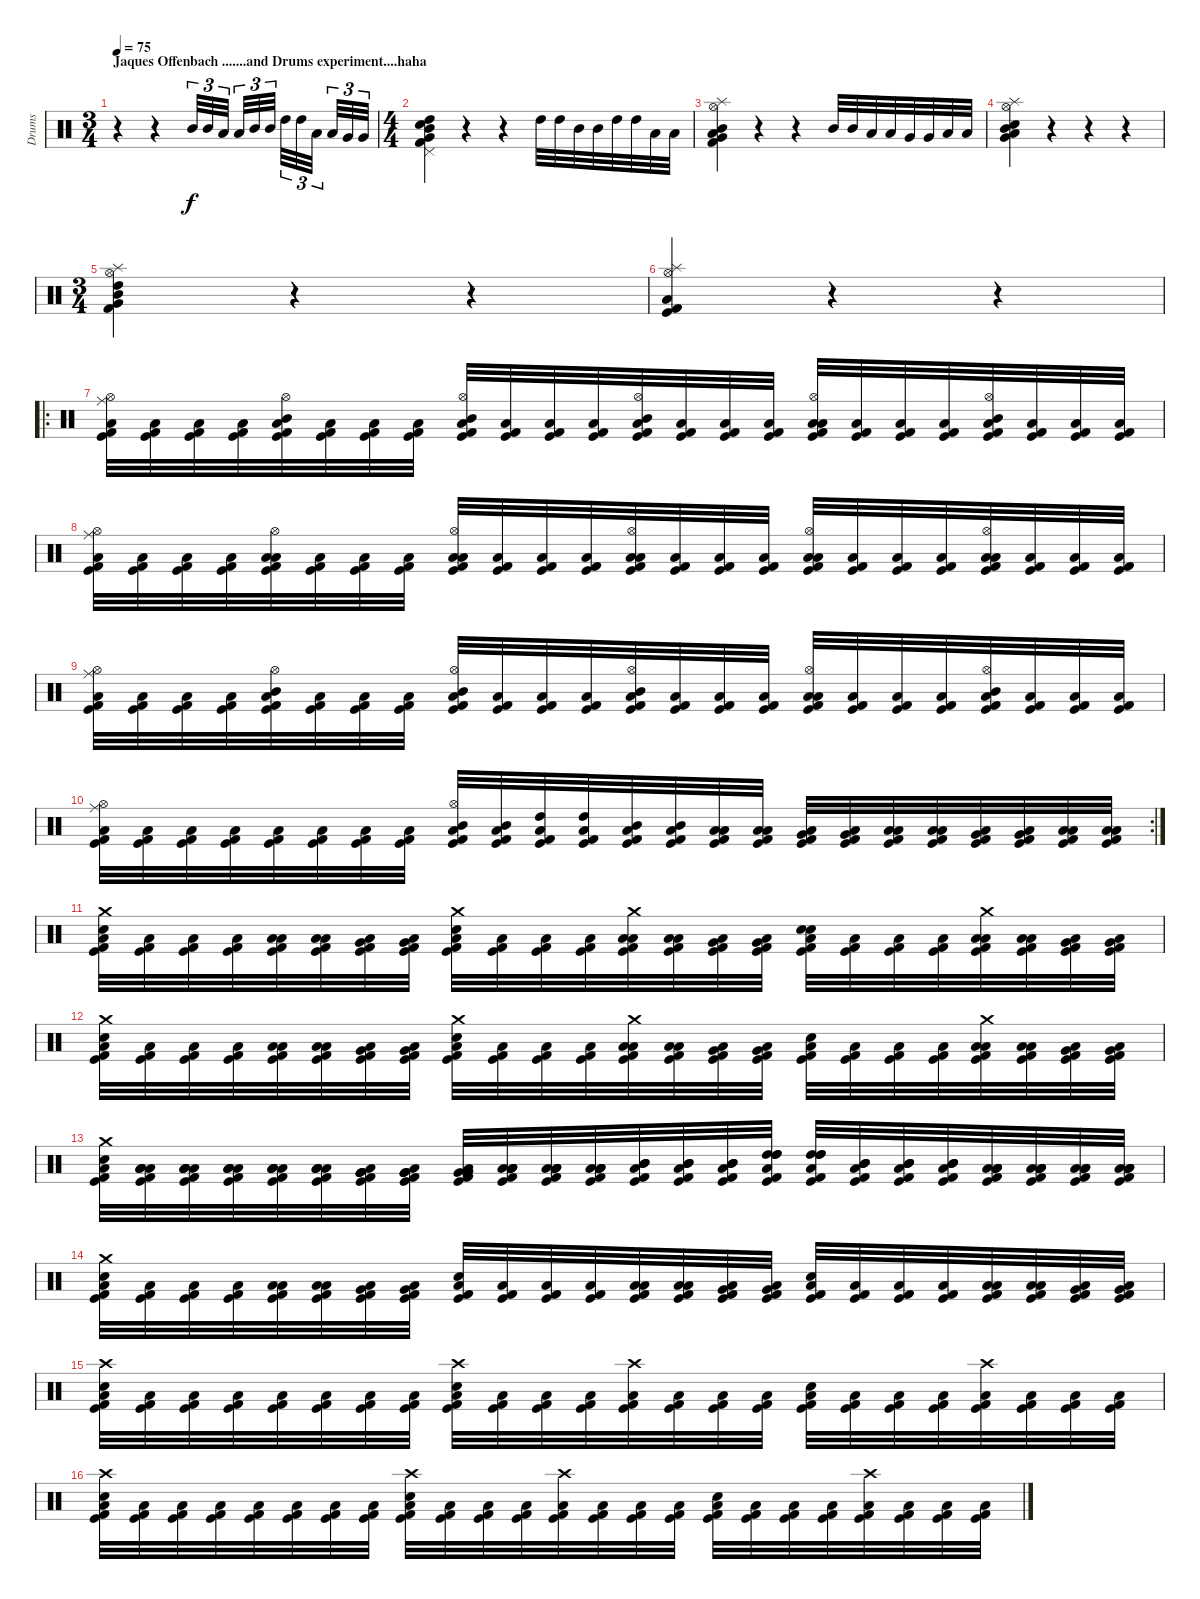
\track ("Drums" "Drums") {instrument percussion}
\staff {score}
\articulation defaults
\ts (3 4)
\section ("" "Jaques Offenbach .......and Drums experiment....haha")
\tempo 75
\clef neutral
\ks c
r.4{dy f} r.4 "Mid Tom (hit)".32{tu (3 2)} "Mid Tom (hit)".32{tu (3 2)} "Low Tom (hit)".32{tu (3 2)} "Low Tom (hit)".32{tu (3 2)} "Mid Tom (hit)".32{tu (3 2)} "Mid Tom (hit)".32{tu (3 2)} "High Tom (hit)".32{tu (3 2)} "High Tom (hit)".32{tu (3 2)} "Low Tom (hit)".32{tu (3 2)} "Low Tom (hit)".32{tu (3 2)} "Very Low Tom (hit)".32{tu (3 2)} "Very Low Tom (hit)".32{tu (3 2)} |
\ts (4 4)
("Mid Tom (hit)" "High Tom (hit)" "Very Low Tom (hit)" "Pedal Hi-Hat (hit)" "Kick (hit) 2" "Electric Snare (hit)").4 r.4 r.4 "High Tom (hit)".32 "High Tom (hit)".32 "Mid Tom (hit)".32 "Mid Tom (hit)".32 "High Tom (hit)".32 "High Tom (hit)".32 "Low Tom (hit)".32 "Low Tom (hit)".32 |
("Mid Tom (hit)" "Low Tom (hit)" "Very Low Tom (hit)" "Hi-Hat (open)" "Splash (hit)" "Kick (hit) 2").4 r.4 r.4 "Mid Tom (hit)".32 "Mid Tom (hit)".32 "Low Tom (hit)".32 "Low Tom (hit)".32 "Very Low Tom (hit)".32 "Very Low Tom (hit)".32 "Low Floor Tom (hit)".32 "Low Floor Tom (hit)".32 |
("Mid Tom (hit)" "Low Tom (hit)" "Hi-Hat (open)" "Splash (hit)" "Snare (hit)" "Very Low Tom (hit)").4 r.4 r.4 r.4 |
\ts (3 4)
("Mid Tom (hit)" "High Tom (hit)" "Very Low Tom (hit)" "Splash (hit)" "Kick (hit) 2" "Hi-Hat (open)").4 r.4 r.4 |
("Hi-Hat (open)" "Splash (hit)" "Low Tom (hit)" "Kick (hit)" "Kick (hit) 2").4 r.4 r.4 |
\ro
("Low Tom (hit)" "Kick (hit)" "Hi-Hat (open)" "Ride (middle)" "Kick (hit) 2").32 ("Low Tom (hit)" "Kick (hit)" "Kick (hit) 2").32 ("Low Tom (hit)" "Kick (hit)" "Kick (hit) 2").32 ("Low Tom (hit)" "Kick (hit)" "Kick (hit) 2").32 ("Low Tom (hit)" "Kick (hit)" "Mid Tom (hit)" "Hi-Hat (open)" "Kick (hit) 2").32 ("Low Tom (hit)" "Kick (hit)" "Kick (hit) 2").32 ("Low Tom (hit)" "Kick (hit)" "Kick (hit) 2").32 ("Low Tom (hit)" "Kick (hit)" "Kick (hit) 2").32 ("Low Tom (hit)" "Kick (hit)" "Mid Tom (hit)" "Hi-Hat (open)" "Kick (hit) 2").32 ("Low Tom (hit)" "Kick (hit)" "Kick (hit) 2").32 ("Low Tom (hit)" "Kick (hit)" "Kick (hit) 2").32 ("Low Tom (hit)" "Kick (hit)" "Kick (hit) 2").32 ("Low Tom (hit)" "Kick (hit)" "Mid Tom (hit)" "Hi-Hat (open)" "Kick (hit) 2").32 ("Low Tom (hit)" "Kick (hit)" "Kick (hit) 2").32 ("Low Tom (hit)" "Kick (hit)" "Kick (hit) 2").32 ("Low Tom (hit)" "Kick (hit)" "Kick (hit) 2").32 ("Low Tom (hit)" "Kick (hit)" "Hi-Hat (open)" "Low Floor Tom (hit)" "Kick (hit) 2").32 ("Low Tom (hit)" "Kick (hit)" "Kick (hit) 2").32 ("Low Tom (hit)" "Kick (hit)" "Kick (hit) 2").32 ("Low Tom (hit)" "Kick (hit)" "Kick (hit) 2").32 ("Low Tom (hit)" "Kick (hit)" "Mid Tom (hit)" "Hi-Hat (open)" "Kick (hit) 2").32 ("Low Tom (hit)" "Kick (hit)" "Kick (hit) 2").32 ("Low Tom (hit)" "Kick (hit)" "Kick (hit) 2").32 ("Low Tom (hit)" "Kick (hit)" "Kick (hit) 2").32 |
("Kick (hit) 2" "Low Tom (hit)" "Hi-Hat (open)" "Ride (middle)" "Kick (hit)").32 ("Kick (hit) 2" "Low Tom (hit)" "Kick (hit)").32 ("Kick (hit) 2" "Low Tom (hit)" "Kick (hit)").32 ("Kick (hit) 2" "Low Tom (hit)" "Kick (hit)").32 ("Kick (hit) 2" "Low Tom (hit)" "Low Tom (hit)" "Hi-Hat (open)" "Kick (hit)").32 ("Kick (hit) 2" "Low Tom (hit)" "Kick (hit)").32 ("Kick (hit) 2" "Low Tom (hit)" "Kick (hit)").32 ("Kick (hit) 2" "Low Tom (hit)" "Kick (hit)").32 ("Kick (hit) 2" "Low Tom (hit)" "Hi-Hat (open)" "Low Tom (hit)" "Kick (hit)").32 ("Kick (hit) 2" "Low Tom (hit)" "Kick (hit)").32 ("Kick (hit) 2" "Low Tom (hit)" "Kick (hit)").32 ("Kick (hit) 2" "Low Tom (hit)" "Kick (hit)").32 ("Kick (hit) 2" "Low Tom (hit)" "Low Tom (hit)" "Hi-Hat (open)" "Kick (hit)").32 ("Kick (hit) 2" "Low Tom (hit)" "Kick (hit)").32 ("Kick (hit) 2" "Low Tom (hit)" "Kick (hit)").32 ("Kick (hit) 2" "Low Tom (hit)" "Kick (hit)").32 ("Kick (hit) 2" "Low Tom (hit)" "Low Floor Tom (hit)" "Hi-Hat (open)" "Kick (hit)").32 ("Kick (hit) 2" "Low Tom (hit)" "Kick (hit)").32 ("Kick (hit) 2" "Low Tom (hit)" "Kick (hit)").32 ("Kick (hit) 2" "Low Tom (hit)" "Kick (hit)").32 ("Kick (hit) 2" "Low Tom (hit)" "Low Tom (hit)" "Hi-Hat (open)" "Kick (hit)").32 ("Kick (hit) 2" "Low Tom (hit)" "Kick (hit)").32 ("Kick (hit) 2" "Low Tom (hit)" "Kick (hit)").32 ("Kick (hit) 2" "Low Tom (hit)" "Kick (hit)").32 |
("Kick (hit)" "Low Tom (hit)" "Hi-Hat (open)" "Ride (middle)" "Kick (hit) 2").32 ("Kick (hit)" "Low Tom (hit)" "Kick (hit) 2").32 ("Kick (hit)" "Low Tom (hit)" "Kick (hit) 2").32 ("Kick (hit)" "Low Tom (hit)" "Kick (hit) 2").32 ("Kick (hit)" "Low Tom (hit)" "Mid Tom (hit)" "Hi-Hat (open)" "Kick (hit) 2").32 ("Kick (hit)" "Low Tom (hit)" "Kick (hit) 2").32 ("Kick (hit)" "Low Tom (hit)" "Kick (hit) 2").32 ("Kick (hit)" "Low Tom (hit)" "Kick (hit) 2").32 ("Kick (hit)" "Low Tom (hit)" "Mid Tom (hit)" "Hi-Hat (open)" "Kick (hit) 2").32 ("Kick (hit)" "Low Tom (hit)" "Kick (hit) 2").32 ("Kick (hit)" "Low Tom (hit)" "Kick (hit) 2").32 ("Kick (hit)" "Low Tom (hit)" "Kick (hit) 2").32 ("Kick (hit)" "Low Tom (hit)" "Mid Tom (hit)" "Hi-Hat (open)" "Kick (hit) 2").32 ("Kick (hit)" "Low Tom (hit)" "Kick (hit) 2").32 ("Kick (hit)" "Low Tom (hit)" "Kick (hit) 2").32 ("Kick (hit)" "Low Tom (hit)" "Kick (hit) 2").32 ("Kick (hit)" "Low Tom (hit)" "Hi-Hat (open)" "Low Floor Tom (hit)" "Kick (hit) 2").32 ("Kick (hit)" "Low Tom (hit)" "Kick (hit) 2").32 ("Kick (hit)" "Low Tom (hit)" "Kick (hit) 2").32 ("Kick (hit)" "Low Tom (hit)" "Kick (hit) 2").32 ("Kick (hit)" "Low Tom (hit)" "Mid Tom (hit)" "Hi-Hat (open)" "Kick (hit) 2").32 ("Kick (hit)" "Low Tom (hit)" "Kick (hit) 2").32 ("Kick (hit)" "Low Tom (hit)" "Kick (hit) 2").32 ("Kick (hit)" "Low Tom (hit)" "Kick (hit) 2").32 |
\rc 2
("Low Tom (hit)" "Kick (hit)" "Hi-Hat (open)" "Ride (middle)" "Kick (hit) 2").32 ("Low Tom (hit)" "Kick (hit)" "Kick (hit) 2").32 ("Low Tom (hit)" "Kick (hit)" "Kick (hit) 2").32 ("Low Tom (hit)" "Kick (hit)" "Kick (hit) 2").32 ("Low Tom (hit)" "Kick (hit)" "Kick (hit) 2").32 ("Low Tom (hit)" "Kick (hit)" "Kick (hit) 2").32 ("Low Tom (hit)" "Kick (hit)" "Kick (hit) 2").32 ("Low Tom (hit)" "Kick (hit)" "Kick (hit) 2").32 ("Low Tom (hit)" "Kick (hit)" "Mid Tom (hit)" "Hi-Hat (open)" "Kick (hit) 2").32 ("Low Tom (hit)" "Kick (hit)" "Mid Tom (hit)" "Kick (hit) 2").32 ("Low Tom (hit)" "Kick (hit)" "High Tom (hit)" "Kick (hit) 2").32 ("Low Tom (hit)" "Kick (hit)" "High Tom (hit)" "Kick (hit) 2").32 ("Low Tom (hit)" "Kick (hit)" "Mid Tom (hit)" "Kick (hit) 2").32 ("Low Tom (hit)" "Kick (hit)" "Mid Tom (hit)" "Kick (hit) 2").32 ("Low Tom (hit)" "Kick (hit)" "Low Tom (hit)" "Kick (hit) 2").32 ("Low Tom (hit)" "Kick (hit)" "Low Tom (hit)" "Kick (hit) 2").32 ("Low Tom (hit)" "Kick (hit)" "Very Low Tom (hit)" "Kick (hit) 2").32 ("Low Tom (hit)" "Kick (hit)" "Very Low Tom (hit)" "Kick (hit) 2").32 ("Low Tom (hit)" "Kick (hit)" "Low Floor Tom (hit)" "Kick (hit) 2").32 ("Low Tom (hit)" "Kick (hit)" "Low Floor Tom (hit)" "Kick (hit) 2").32 ("Low Tom (hit)" "Kick (hit)" "Very Low Tom (hit)" "Kick (hit) 2").32 ("Low Tom (hit)" "Kick (hit)" "Very Low Tom (hit)" "Kick (hit) 2").32 ("Low Tom (hit)" "Kick (hit)" "Low Tom (hit)" "Kick (hit) 2").32 ("Low Tom (hit)" "Kick (hit)" "Low Tom (hit)" "Kick (hit) 2").32 |
("Kick (hit) 2" "Low Tom (hit)" "Electric Snare (hit)" "Crash medium (hit)" "Kick (hit)").32 ("Kick (hit) 2" "Low Tom (hit)" "Kick (hit)").32 ("Kick (hit) 2" "Low Tom (hit)" "Kick (hit)").32 ("Kick (hit) 2" "Low Tom (hit)" "Kick (hit)").32 ("Kick (hit) 2" "Low Tom (hit)" "Low Tom (hit)" "Kick (hit)").32 ("Kick (hit) 2" "Low Tom (hit)" "Low Tom (hit)" "Kick (hit)").32 ("Kick (hit) 2" "Low Tom (hit)" "Very Low Tom (hit)" "Kick (hit)").32 ("Kick (hit) 2" "Low Tom (hit)" "Very Low Tom (hit)" "Kick (hit)").32 ("Kick (hit) 2" "Low Tom (hit)" "Electric Snare (hit)" "Crash medium (hit)" "Kick (hit)").32 ("Kick (hit) 2" "Low Tom (hit)" "Kick (hit)").32 ("Kick (hit) 2" "Low Tom (hit)" "Kick (hit)").32 ("Kick (hit) 2" "Low Tom (hit)" "Kick (hit)").32 ("Kick (hit) 2" "Low Tom (hit)" "Crash medium (hit)" "Low Tom (hit)" "Kick (hit)").32 ("Kick (hit) 2" "Low Tom (hit)" "Low Tom (hit)" "Kick (hit)").32 ("Kick (hit) 2" "Low Tom (hit)" "Very Low Tom (hit)" "Kick (hit)").32 ("Kick (hit) 2" "Low Tom (hit)" "Very Low Tom (hit)" "Kick (hit)").32 ("Kick (hit) 2" "Low Tom (hit)" "Electric Snare (hit)" "Electric Snare (hit)" "Kick (hit)").32 ("Kick (hit) 2" "Low Tom (hit)" "Kick (hit)").32 ("Kick (hit) 2" "Low Tom (hit)" "Kick (hit)").32 ("Kick (hit) 2" "Low Tom (hit)" "Kick (hit)").32 ("Kick (hit) 2" "Low Tom (hit)" "Crash medium (hit)" "Low Tom (hit)" "Kick (hit)").32 ("Kick (hit) 2" "Low Tom (hit)" "Low Tom (hit)" "Kick (hit)").32 ("Kick (hit) 2" "Low Tom (hit)" "Very Low Tom (hit)" "Kick (hit)").32 ("Kick (hit) 2" "Low Tom (hit)" "Very Low Tom (hit)" "Kick (hit)").32 |
("Kick (hit) 2" "Low Tom (hit)" "Electric Snare (hit)" "Crash medium (hit)" "Kick (hit)").32 ("Kick (hit) 2" "Low Tom (hit)" "Kick (hit)").32 ("Kick (hit) 2" "Low Tom (hit)" "Kick (hit)").32 ("Kick (hit) 2" "Low Tom (hit)" "Kick (hit)").32 ("Kick (hit) 2" "Low Tom (hit)" "Low Tom (hit)" "Kick (hit)").32 ("Kick (hit) 2" "Low Tom (hit)" "Low Tom (hit)" "Kick (hit)").32 ("Kick (hit) 2" "Low Tom (hit)" "Very Low Tom (hit)" "Kick (hit)").32 ("Kick (hit) 2" "Low Tom (hit)" "Very Low Tom (hit)" "Kick (hit)").32 ("Kick (hit) 2" "Low Tom (hit)" "Electric Snare (hit)" "Crash medium (hit)" "Kick (hit)").32 ("Kick (hit) 2" "Low Tom (hit)" "Kick (hit)").32 ("Kick (hit) 2" "Low Tom (hit)" "Kick (hit)").32 ("Kick (hit) 2" "Low Tom (hit)" "Kick (hit)").32 ("Kick (hit) 2" "Low Tom (hit)" "Crash medium (hit)" "Low Tom (hit)" "Kick (hit)").32 ("Kick (hit) 2" "Low Tom (hit)" "Low Tom (hit)" "Kick (hit)").32 ("Kick (hit) 2" "Low Tom (hit)" "Very Low Tom (hit)" "Kick (hit)").32 ("Kick (hit) 2" "Low Tom (hit)" "Very Low Tom (hit)" "Kick (hit)").32 ("Kick (hit) 2" "Low Tom (hit)" "Electric Snare (hit)" "Kick (hit)").32 ("Kick (hit) 2" "Low Tom (hit)" "Kick (hit)").32 ("Kick (hit) 2" "Low Tom (hit)" "Kick (hit)").32 ("Kick (hit) 2" "Low Tom (hit)" "Kick (hit)").32 ("Kick (hit) 2" "Low Tom (hit)" "Crash medium (hit)" "Low Tom (hit)" "Kick (hit)").32 ("Kick (hit) 2" "Low Tom (hit)" "Low Tom (hit)" "Kick (hit)").32 ("Kick (hit) 2" "Low Tom (hit)" "Very Low Tom (hit)" "Kick (hit)").32 ("Kick (hit) 2" "Low Tom (hit)" "Very Low Tom (hit)" "Kick (hit)").32 |
("Kick (hit) 2" "Low Tom (hit)" "Electric Snare (hit)" "Crash medium (hit)" "Kick (hit)").32 ("Kick (hit) 2" "Low Tom (hit)" "Low Floor Tom (hit)" "Low Floor Tom (hit)" "Low Floor Tom (hit)" "Kick (hit)").32 ("Kick (hit) 2" "Low Tom (hit)" "Low Floor Tom (hit)" "Low Floor Tom (hit)" "Low Floor Tom (hit)" "Kick (hit)").32 ("Kick (hit) 2" "Low Tom (hit)" "Low Floor Tom (hit)" "Low Floor Tom (hit)" "Low Floor Tom (hit)" "Kick (hit)").32 ("Kick (hit) 2" "Low Tom (hit)" "Low Floor Tom (hit)" "Low Floor Tom (hit)" "Low Floor Tom (hit)" "Kick (hit)").32 ("Kick (hit) 2" "Low Tom (hit)" "Low Floor Tom (hit)" "Low Floor Tom (hit)" "Low Floor Tom (hit)" "Kick (hit)").32 ("Kick (hit) 2" "Low Tom (hit)" "Very Low Tom (hit)" "Very Low Tom (hit)" "Very Low Tom (hit)" "Kick (hit)").32 ("Kick (hit) 2" "Low Tom (hit)" "Very Low Tom (hit)" "Very Low Tom (hit)" "Very Low Tom (hit)" "Kick (hit)").32 ("Kick (hit) 2" "Low Tom (hit)" "Very Low Tom (hit)" "Very Low Tom (hit)" "Very Low Tom (hit)" "Kick (hit)").32 ("Kick (hit) 2" "Low Tom (hit)" "Low Tom (hit)" "Low Tom (hit)" "Low Tom (hit)" "Kick (hit)").32 ("Kick (hit) 2" "Low Tom (hit)" "Low Tom (hit)" "Low Tom (hit)" "Low Tom (hit)" "Kick (hit)").32 ("Kick (hit) 2" "Low Tom (hit)" "Low Tom (hit)" "Low Tom (hit)" "Low Tom (hit)" "Kick (hit)").32 ("Kick (hit) 2" "Low Tom (hit)" "Mid Tom (hit)" "Mid Tom (hit)" "Mid Tom (hit)" "Kick (hit)").32 ("Kick (hit) 2" "Low Tom (hit)" "Mid Tom (hit)" "Mid Tom (hit)" "Mid Tom (hit)" "Kick (hit)").32 ("Kick (hit) 2" "Low Tom (hit)" "Mid Tom (hit)" "Mid Tom (hit)" "Mid Tom (hit)" "Kick (hit)").32 ("Kick (hit) 2" "Low Tom (hit)" "High Tom (hit)" "High Tom (hit)" "High Tom (hit)" "Kick (hit)").32 ("Kick (hit) 2" "Low Tom (hit)" "High Tom (hit)" "High Tom (hit)" "High Tom (hit)" "Kick (hit)").32 ("Kick (hit) 2" "Low Tom (hit)" "Mid Tom (hit)" "Mid Tom (hit)" "Mid Tom (hit)" "Kick (hit)").32 ("Kick (hit) 2" "Low Tom (hit)" "Mid Tom (hit)" "Mid Tom (hit)" "Mid Tom (hit)" "Kick (hit)").32 ("Kick (hit) 2" "Low Tom (hit)" "Mid Tom (hit)" "Mid Tom (hit)" "Mid Tom (hit)" "Kick (hit)").32 ("Kick (hit) 2" "Low Tom (hit)" "Low Tom (hit)" "Low Tom (hit)" "Low Tom (hit)" "Kick (hit)").32 ("Kick (hit) 2" "Low Tom (hit)" "Low Tom (hit)" "Low Tom (hit)" "Low Tom (hit)" "Kick (hit)").32 ("Kick (hit) 2" "Low Tom (hit)" "Low Floor Tom (hit)" "Low Floor Tom (hit)" "Low Floor Tom (hit)" "Kick (hit)").32 ("Kick (hit) 2" "Low Tom (hit)" "Low Floor Tom (hit)" "Low Floor Tom (hit)" "Low Floor Tom (hit)" "Kick (hit)").32 |
("Kick (hit) 2" "Low Tom (hit)" "Crash medium (hit)" "Electric Snare (hit)" "Kick (hit)").32 ("Kick (hit) 2" "Low Tom (hit)" "Kick (hit)").32 ("Kick (hit) 2" "Low Tom (hit)" "Kick (hit)").32 ("Kick (hit) 2" "Low Tom (hit)" "Kick (hit)").32 ("Kick (hit) 2" "Low Tom (hit)" "Low Tom (hit)" "Kick (hit)").32 ("Kick (hit) 2" "Low Tom (hit)" "Low Tom (hit)" "Kick (hit)").32 ("Kick (hit) 2" "Low Tom (hit)" "Very Low Tom (hit)" "Kick (hit)").32 ("Kick (hit) 2" "Low Tom (hit)" "Very Low Tom (hit)" "Kick (hit)").32 ("Kick (hit) 2" "Low Tom (hit)" "Electric Snare (hit)" "Kick (hit)").32 ("Kick (hit) 2" "Low Tom (hit)" "Kick (hit)").32 ("Kick (hit) 2" "Low Tom (hit)" "Kick (hit)").32 ("Kick (hit) 2" "Low Tom (hit)" "Kick (hit)").32 ("Kick (hit) 2" "Low Tom (hit)" "Low Tom (hit)" "Kick (hit)").32 ("Kick (hit) 2" "Low Tom (hit)" "Low Tom (hit)" "Kick (hit)").32 ("Kick (hit) 2" "Low Tom (hit)" "Very Low Tom (hit)" "Kick (hit)").32 ("Kick (hit) 2" "Low Tom (hit)" "Very Low Tom (hit)" "Kick (hit)").32 ("Kick (hit) 2" "Low Tom (hit)" "Electric Snare (hit)" "Kick (hit)").32 ("Kick (hit) 2" "Low Tom (hit)" "Kick (hit)").32 ("Kick (hit) 2" "Low Tom (hit)" "Kick (hit)").32 ("Kick (hit) 2" "Low Tom (hit)" "Kick (hit)").32 ("Kick (hit) 2" "Low Tom (hit)" "Low Tom (hit)" "Kick (hit)").32 ("Kick (hit) 2" "Low Tom (hit)" "Low Tom (hit)" "Kick (hit)").32 ("Kick (hit) 2" "Low Tom (hit)" "Very Low Tom (hit)" "Kick (hit)").32 ("Kick (hit) 2" "Low Tom (hit)" "Very Low Tom (hit)" "Kick (hit)").32 |
("Kick (hit) 2" "Low Tom (hit)" "Electric Snare (hit)" "Crash high (hit)" "Kick (hit)").32 ("Kick (hit) 2" "Low Tom (hit)" "Kick (hit)").32 ("Kick (hit) 2" "Low Tom (hit)" "Kick (hit)").32 ("Kick (hit) 2" "Low Tom (hit)" "Kick (hit)").32 ("Kick (hit) 2" "Low Tom (hit)" "Kick (hit)").32 ("Kick (hit) 2" "Low Tom (hit)" "Kick (hit)").32 ("Kick (hit) 2" "Low Tom (hit)" "Kick (hit)").32 ("Kick (hit) 2" "Low Tom (hit)" "Kick (hit)").32 ("Kick (hit) 2" "Low Tom (hit)" "Electric Snare (hit)" "Crash high (hit)" "Kick (hit)").32 ("Kick (hit) 2" "Low Tom (hit)" "Kick (hit)").32 ("Kick (hit) 2" "Low Tom (hit)" "Kick (hit)").32 ("Kick (hit) 2" "Low Tom (hit)" "Kick (hit)").32 ("Kick (hit) 2" "Low Tom (hit)" "Crash high (hit)" "Kick (hit)").32 ("Kick (hit) 2" "Low Tom (hit)" "Kick (hit)").32 ("Kick (hit) 2" "Low Tom (hit)" "Kick (hit)").32 ("Kick (hit) 2" "Low Tom (hit)" "Kick (hit)").32 ("Kick (hit) 2" "Low Tom (hit)" "Electric Snare (hit)" "Kick (hit)").32 ("Kick (hit) 2" "Low Tom (hit)" "Kick (hit)").32 ("Kick (hit) 2" "Low Tom (hit)" "Kick (hit)").32 ("Kick (hit) 2" "Low Tom (hit)" "Kick (hit)").32 ("Kick (hit) 2" "Low Tom (hit)" "Crash high (hit)" "Kick (hit)").32 ("Kick (hit) 2" "Low Tom (hit)" "Kick (hit)").32 ("Kick (hit) 2" "Low Tom (hit)" "Kick (hit)").32 ("Kick (hit) 2" "Low Tom (hit)" "Kick (hit)").32 |
("Kick (hit) 2" "Low Tom (hit)" "Snare (hit) 2" "Crash high (hit)" "Kick (hit)").32 ("Kick (hit) 2" "Low Tom (hit)" "Kick (hit)").32 ("Kick (hit) 2" "Low Tom (hit)" "Kick (hit)").32 ("Kick (hit) 2" "Low Tom (hit)" "Kick (hit)").32 ("Kick (hit) 2" "Low Tom (hit)" "Kick (hit)").32 ("Kick (hit) 2" "Low Tom (hit)" "Kick (hit)").32 ("Kick (hit) 2" "Low Tom (hit)" "Kick (hit)").32 ("Kick (hit) 2" "Low Tom (hit)" "Kick (hit)").32 ("Kick (hit) 2" "Low Tom (hit)" "Snare (hit) 2" "Crash high (hit)" "Kick (hit)").32 ("Kick (hit) 2" "Low Tom (hit)" "Kick (hit)").32 ("Kick (hit) 2" "Low Tom (hit)" "Kick (hit)").32 ("Kick (hit) 2" "Low Tom (hit)" "Kick (hit)").32 ("Kick (hit) 2" "Low Tom (hit)" "Crash high (hit)" "Kick (hit)").32 ("Kick (hit) 2" "Low Tom (hit)" "Kick (hit)").32 ("Kick (hit) 2" "Low Tom (hit)" "Kick (hit)").32 ("Kick (hit) 2" "Low Tom (hit)" "Kick (hit)").32 ("Kick (hit) 2" "Low Tom (hit)" "Snare (hit) 2" "Kick (hit)").32 ("Kick (hit) 2" "Low Tom (hit)" "Kick (hit)").32 ("Kick (hit) 2" "Low Tom (hit)" "Kick (hit)").32 ("Kick (hit) 2" "Low Tom (hit)" "Kick (hit)").32 ("Kick (hit) 2" "Low Tom (hit)" "Crash high (hit)" "Kick (hit)").32 ("Kick (hit) 2" "Low Tom (hit)" "Kick (hit)").32 ("Kick (hit) 2" "Low Tom (hit)" "Kick (hit)").32 ("Kick (hit) 2" "Low Tom (hit)" "Kick (hit)").32
